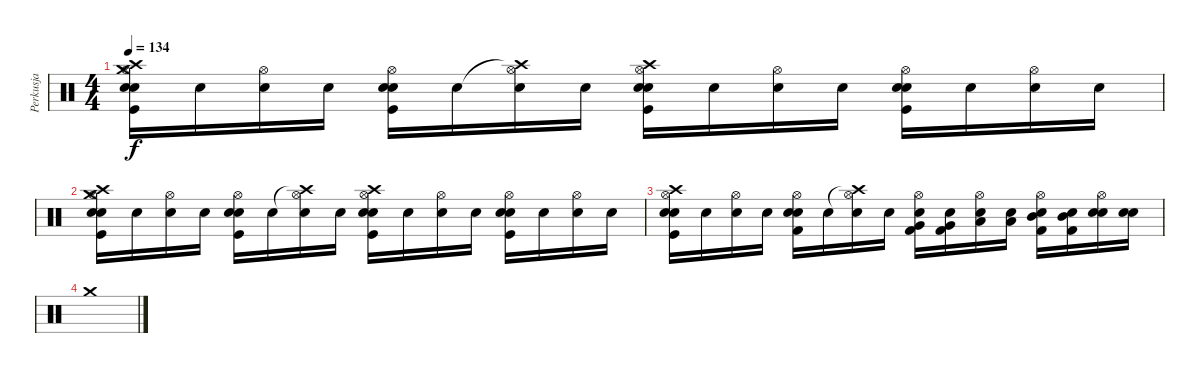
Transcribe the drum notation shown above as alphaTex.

\track ("Perkusja" "Perkusja") {instrument percussion}
\staff {score}
\articulation defaults
\ts (4 4)
\tempo 134
\clef neutral
\ks c
("Crash high (hit)" "Crash medium (hit)" "Electric Snare (hit)" "Kick (hit)" "Hi-Hat (open)" "Snare (hit)").16{dy f} "Snare (hit)".16 ("Hi-Hat (open)" "Snare (hit)").16 "Snare (hit)".16 ("Electric Snare (hit)" "Kick (hit)" "Hi-Hat (open)" "Snare (hit)").16 "Snare (hit)".16 ("Crash high (hit)"{t} "Hi-Hat (open)" "Snare (hit)").16 "Snare (hit)".16 ("Crash high (hit)" "Electric Snare (hit)" "Kick (hit)" "Hi-Hat (open)" "Snare (hit)").16 "Snare (hit)".16 ("Hi-Hat (open)" "Snare (hit)").16 "Snare (hit)".16 ("Electric Snare (hit)" "Kick (hit)" "Hi-Hat (open)" "Snare (hit)").16 "Snare (hit)".16 ("Hi-Hat (open)" "Snare (hit)").16 "Snare (hit)".16 |
("Crash high (hit)" "Crash medium (hit)" "Electric Snare (hit)" "Kick (hit)" "Hi-Hat (open)" "Snare (hit)").16 "Snare (hit)".16 ("Hi-Hat (open)" "Snare (hit)").16 "Snare (hit)".16 ("Electric Snare (hit)" "Kick (hit)" "Hi-Hat (open)" "Snare (hit)").16 "Snare (hit)".16 ("Crash high (hit)"{t} "Hi-Hat (open)" "Snare (hit)").16 "Snare (hit)".16 ("Crash high (hit)" "Electric Snare (hit)" "Kick (hit)" "Hi-Hat (open)" "Snare (hit)").16 "Snare (hit)".16 ("Hi-Hat (open)" "Snare (hit)").16 "Snare (hit)".16 ("Electric Snare (hit)" "Kick (hit)" "Hi-Hat (open)" "Snare (hit)").16 "Snare (hit)".16 ("Hi-Hat (open)" "Snare (hit)").16 "Snare (hit)".16 |
("Crash high (hit)" "Electric Snare (hit)" "Kick (hit)" "Hi-Hat (open)" "Snare (hit)").16 "Snare (hit)".16 ("Hi-Hat (open)" "Snare (hit)").16 "Snare (hit)".16 ("Electric Snare (hit)" "Kick (hit) 2" "Hi-Hat (open)" "Snare (hit)").16 "Snare (hit)".16 ("Crash high (hit)"{t} "Hi-Hat (open)" "Snare (hit)").16 "Snare (hit)".16 ("Very Low Tom (hit)" "Kick (hit) 2" "Hi-Hat (open)" "Snare (hit)").16 ("Very Low Tom (hit)" "Kick (hit) 2" "Snare (hit)").16 ("Low Tom (hit)" "Hi-Hat (open)" "Snare (hit)").16 ("Low Tom (hit)" "Snare (hit)").16 ("Mid Tom (hit)" "Kick (hit) 2" "Hi-Hat (open)" "Snare (hit)").16 ("Mid Tom (hit)" "Kick (hit) 2" "Snare (hit)").16 ("Electric Snare (hit)" "Hi-Hat (open)" "Snare (hit)").16 ("Electric Snare (hit)" "Snare (hit)").16 |
"Crash medium (hit)".1
